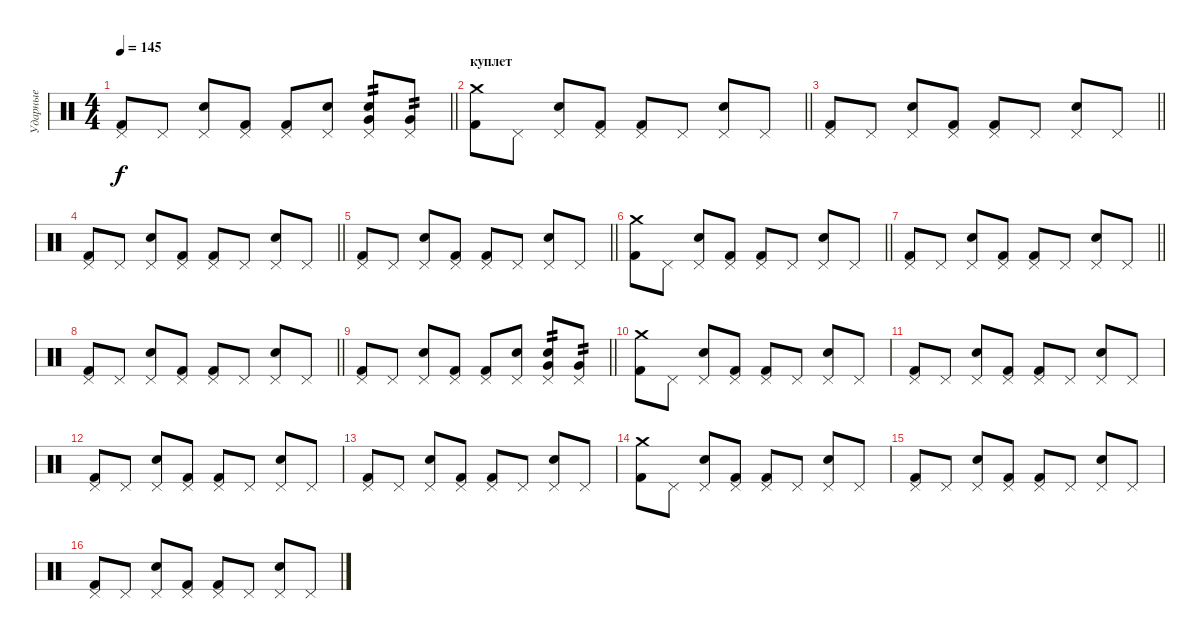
\track ("Ударные" "Ударные") {instrument percussion}
\staff {score}
\articulation defaults
\ts (4 4)
\tempo 145
\clef neutral
\barLineRight lightlight
\ks c
("Pedal Hi-Hat (hit)" "Kick (hit) 2").8{dy f} "Pedal Hi-Hat (hit)".8 ("Pedal Hi-Hat (hit)" "Electric Snare (hit)").8 ("Pedal Hi-Hat (hit)" "Kick (hit) 2").8 ("Pedal Hi-Hat (hit)" "Kick (hit) 2").8 ("Pedal Hi-Hat (hit)" "Electric Snare (hit)").8 ("Pedal Hi-Hat (hit)" "Very Low Tom (hit)" "Electric Snare (hit)").8{tp 2} ("Pedal Hi-Hat (hit)" "Very Low Tom (hit)").8{tp 2} |
\section ("" "куплет")
\barLineRight lightlight
("Crash medium (hit)" "Kick (hit) 2").8 "Pedal Hi-Hat (hit)".8 ("Pedal Hi-Hat (hit)" "Electric Snare (hit)").8 ("Pedal Hi-Hat (hit)" "Kick (hit) 2").8 ("Pedal Hi-Hat (hit)" "Kick (hit) 2").8 "Pedal Hi-Hat (hit)".8 ("Pedal Hi-Hat (hit)" "Electric Snare (hit)").8 "Pedal Hi-Hat (hit)".8 |
\barLineRight lightlight
("Pedal Hi-Hat (hit)" "Kick (hit) 2").8 "Pedal Hi-Hat (hit)".8 ("Pedal Hi-Hat (hit)" "Electric Snare (hit)").8 ("Pedal Hi-Hat (hit)" "Kick (hit) 2").8 ("Pedal Hi-Hat (hit)" "Kick (hit) 2").8 "Pedal Hi-Hat (hit)".8 ("Pedal Hi-Hat (hit)" "Electric Snare (hit)").8 "Pedal Hi-Hat (hit)".8 |
\barLineRight lightlight
("Pedal Hi-Hat (hit)" "Kick (hit) 2").8 "Pedal Hi-Hat (hit)".8 ("Pedal Hi-Hat (hit)" "Electric Snare (hit)").8 ("Pedal Hi-Hat (hit)" "Kick (hit) 2").8 ("Pedal Hi-Hat (hit)" "Kick (hit) 2").8 "Pedal Hi-Hat (hit)".8 ("Pedal Hi-Hat (hit)" "Electric Snare (hit)").8 "Pedal Hi-Hat (hit)".8 |
\barLineRight lightlight
("Pedal Hi-Hat (hit)" "Kick (hit) 2").8 "Pedal Hi-Hat (hit)".8 ("Pedal Hi-Hat (hit)" "Electric Snare (hit)").8 ("Pedal Hi-Hat (hit)" "Kick (hit) 2").8 ("Pedal Hi-Hat (hit)" "Kick (hit) 2").8 "Pedal Hi-Hat (hit)".8 ("Pedal Hi-Hat (hit)" "Electric Snare (hit)").8 "Pedal Hi-Hat (hit)".8 |
\barLineRight lightlight
("Crash medium (hit)" "Kick (hit) 2").8 "Pedal Hi-Hat (hit)".8 ("Pedal Hi-Hat (hit)" "Electric Snare (hit)").8 ("Pedal Hi-Hat (hit)" "Kick (hit) 2").8 ("Pedal Hi-Hat (hit)" "Kick (hit) 2").8 "Pedal Hi-Hat (hit)".8 ("Pedal Hi-Hat (hit)" "Electric Snare (hit)").8 "Pedal Hi-Hat (hit)".8 |
\barLineRight lightlight
("Pedal Hi-Hat (hit)" "Kick (hit) 2").8 "Pedal Hi-Hat (hit)".8 ("Pedal Hi-Hat (hit)" "Electric Snare (hit)").8 ("Pedal Hi-Hat (hit)" "Kick (hit) 2").8 ("Pedal Hi-Hat (hit)" "Kick (hit) 2").8 "Pedal Hi-Hat (hit)".8 ("Pedal Hi-Hat (hit)" "Electric Snare (hit)").8 "Pedal Hi-Hat (hit)".8 |
\barLineRight lightlight
("Pedal Hi-Hat (hit)" "Kick (hit) 2").8 "Pedal Hi-Hat (hit)".8 ("Pedal Hi-Hat (hit)" "Electric Snare (hit)").8 ("Pedal Hi-Hat (hit)" "Kick (hit) 2").8 ("Pedal Hi-Hat (hit)" "Kick (hit) 2").8 "Pedal Hi-Hat (hit)".8 ("Pedal Hi-Hat (hit)" "Electric Snare (hit)").8 "Pedal Hi-Hat (hit)".8 |
\barLineRight lightlight
("Pedal Hi-Hat (hit)" "Kick (hit) 2").8 "Pedal Hi-Hat (hit)".8 ("Pedal Hi-Hat (hit)" "Electric Snare (hit)").8 ("Pedal Hi-Hat (hit)" "Kick (hit) 2").8 ("Pedal Hi-Hat (hit)" "Kick (hit) 2").8 ("Pedal Hi-Hat (hit)" "Electric Snare (hit)").8 ("Pedal Hi-Hat (hit)" "Very Low Tom (hit)" "Electric Snare (hit)").8{tp 2} ("Pedal Hi-Hat (hit)" "Very Low Tom (hit)").8{tp 2} |
("Crash medium (hit)" "Kick (hit) 2").8 "Pedal Hi-Hat (hit)".8 ("Pedal Hi-Hat (hit)" "Electric Snare (hit)").8 ("Pedal Hi-Hat (hit)" "Kick (hit) 2").8 ("Pedal Hi-Hat (hit)" "Kick (hit) 2").8 "Pedal Hi-Hat (hit)".8 ("Pedal Hi-Hat (hit)" "Electric Snare (hit)").8 "Pedal Hi-Hat (hit)".8 |
("Pedal Hi-Hat (hit)" "Kick (hit) 2").8 "Pedal Hi-Hat (hit)".8 ("Pedal Hi-Hat (hit)" "Electric Snare (hit)").8 ("Pedal Hi-Hat (hit)" "Kick (hit) 2").8 ("Pedal Hi-Hat (hit)" "Kick (hit) 2").8 "Pedal Hi-Hat (hit)".8 ("Pedal Hi-Hat (hit)" "Electric Snare (hit)").8 "Pedal Hi-Hat (hit)".8 |
("Pedal Hi-Hat (hit)" "Kick (hit) 2").8 "Pedal Hi-Hat (hit)".8 ("Pedal Hi-Hat (hit)" "Electric Snare (hit)").8 ("Pedal Hi-Hat (hit)" "Kick (hit) 2").8 ("Pedal Hi-Hat (hit)" "Kick (hit) 2").8 "Pedal Hi-Hat (hit)".8 ("Pedal Hi-Hat (hit)" "Electric Snare (hit)").8 "Pedal Hi-Hat (hit)".8 |
("Pedal Hi-Hat (hit)" "Kick (hit) 2").8 "Pedal Hi-Hat (hit)".8 ("Pedal Hi-Hat (hit)" "Electric Snare (hit)").8 ("Pedal Hi-Hat (hit)" "Kick (hit) 2").8 ("Pedal Hi-Hat (hit)" "Kick (hit) 2").8 "Pedal Hi-Hat (hit)".8 ("Pedal Hi-Hat (hit)" "Electric Snare (hit)").8 "Pedal Hi-Hat (hit)".8 |
("Crash medium (hit)" "Kick (hit) 2").8 "Pedal Hi-Hat (hit)".8 ("Pedal Hi-Hat (hit)" "Electric Snare (hit)").8 ("Pedal Hi-Hat (hit)" "Kick (hit) 2").8 ("Pedal Hi-Hat (hit)" "Kick (hit) 2").8 "Pedal Hi-Hat (hit)".8 ("Pedal Hi-Hat (hit)" "Electric Snare (hit)").8 "Pedal Hi-Hat (hit)".8 |
("Pedal Hi-Hat (hit)" "Kick (hit) 2").8 "Pedal Hi-Hat (hit)".8 ("Pedal Hi-Hat (hit)" "Electric Snare (hit)").8 ("Pedal Hi-Hat (hit)" "Kick (hit) 2").8 ("Pedal Hi-Hat (hit)" "Kick (hit) 2").8 "Pedal Hi-Hat (hit)".8 ("Pedal Hi-Hat (hit)" "Electric Snare (hit)").8 "Pedal Hi-Hat (hit)".8 |
("Pedal Hi-Hat (hit)" "Kick (hit) 2").8 "Pedal Hi-Hat (hit)".8 ("Pedal Hi-Hat (hit)" "Electric Snare (hit)").8 ("Pedal Hi-Hat (hit)" "Kick (hit) 2").8 ("Pedal Hi-Hat (hit)" "Kick (hit) 2").8 "Pedal Hi-Hat (hit)".8 ("Pedal Hi-Hat (hit)" "Electric Snare (hit)").8 "Pedal Hi-Hat (hit)".8
